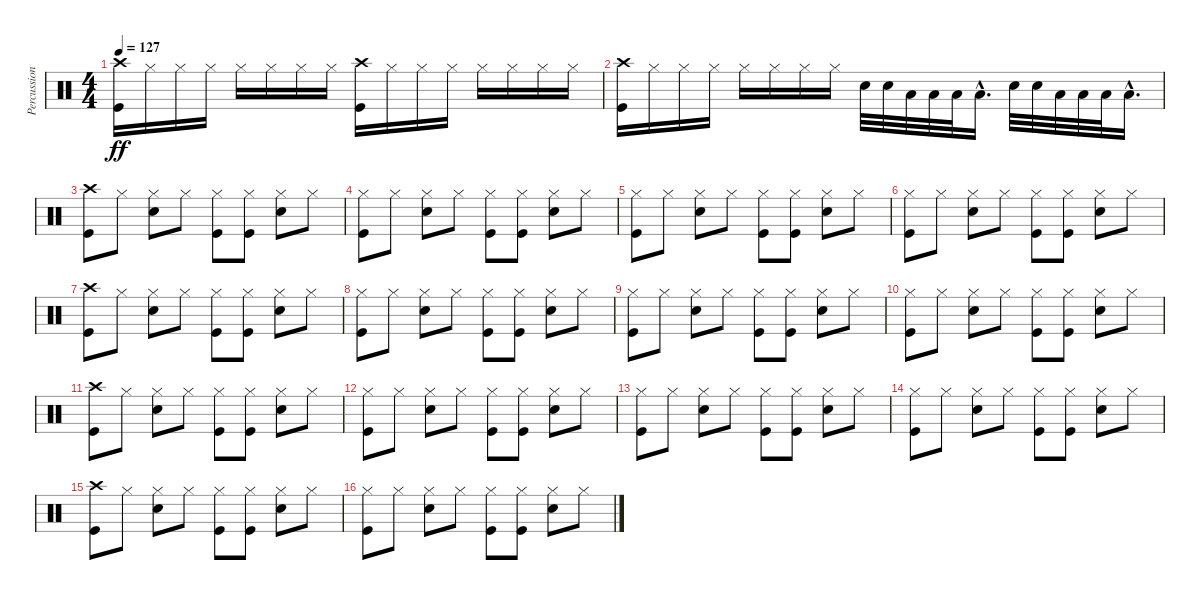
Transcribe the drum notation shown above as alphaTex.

\track ("Percussion" "Percussion") {instrument percussion}
\staff {score}
\articulation defaults
\ts (4 4)
\tempo 127
\clef neutral
\ks c
("Crash high (hit)" "Kick (hit)").16{dy ff} "Hi-Hat (closed)".16 "Hi-Hat (closed)".16 "Hi-Hat (closed)".16 "Hi-Hat (closed)".16 "Hi-Hat (closed)".16 "Hi-Hat (closed)".16 "Hi-Hat (closed)".16 ("Crash high (hit)" "Kick (hit)").16 "Hi-Hat (closed)".16 "Hi-Hat (closed)".16 "Hi-Hat (closed)".16 "Hi-Hat (closed)".16 "Hi-Hat (closed)".16 "Hi-Hat (closed)".16 "Hi-Hat (closed)".16 |
("Crash high (hit)" "Kick (hit)").16 "Hi-Hat (closed)".16 "Hi-Hat (closed)".16 "Hi-Hat (closed)".16 "Hi-Hat (closed)".16 "Hi-Hat (closed)".16 "Hi-Hat (closed)".16 "Hi-Hat (closed)".16 "Snare (hit) 2".32 "Snare (hit) 2".32 "Low Tom (hit)".32 "Low Tom (hit)".32 "Low Floor Tom (hit)".32 "Low Floor Tom (hit)"{hac}.16{d} "Snare (hit) 2".32 "Snare (hit) 2".32 "Low Tom (hit)".32 "Low Tom (hit)".32 "Low Floor Tom (hit)".32 "Low Floor Tom (hit)"{hac}.16{d} |
("Crash high (hit)" "Kick (hit)").8 "Hi-Hat (closed)".8 ("Hi-Hat (closed)" "Snare (hit) 2").8 "Hi-Hat (closed)".8 ("Hi-Hat (closed)" "Kick (hit)").8 ("Hi-Hat (closed)" "Kick (hit)").8 ("Hi-Hat (closed)" "Snare (hit) 2").8 "Hi-Hat (closed)".8 |
("Hi-Hat (closed)" "Kick (hit)").8 "Hi-Hat (closed)".8 ("Hi-Hat (closed)" "Snare (hit) 2").8 "Hi-Hat (closed)".8 ("Hi-Hat (closed)" "Kick (hit)").8 ("Hi-Hat (closed)" "Kick (hit)").8 ("Hi-Hat (closed)" "Snare (hit) 2").8 "Hi-Hat (closed)".8 |
("Hi-Hat (closed)" "Kick (hit)").8 "Hi-Hat (closed)".8 ("Hi-Hat (closed)" "Snare (hit) 2").8 "Hi-Hat (closed)".8 ("Hi-Hat (closed)" "Kick (hit)").8 ("Hi-Hat (closed)" "Kick (hit)").8 ("Hi-Hat (closed)" "Snare (hit) 2").8 "Hi-Hat (closed)".8 |
("Hi-Hat (closed)" "Kick (hit)").8 "Hi-Hat (closed)".8 ("Hi-Hat (closed)" "Snare (hit) 2").8 "Hi-Hat (closed)".8 ("Hi-Hat (closed)" "Kick (hit)").8 ("Hi-Hat (closed)" "Kick (hit)").8 ("Hi-Hat (closed)" "Snare (hit) 2").8 "Hi-Hat (closed)".8 |
("Crash high (hit)" "Kick (hit)").8 "Hi-Hat (closed)".8 ("Hi-Hat (closed)" "Snare (hit) 2").8 "Hi-Hat (closed)".8 ("Hi-Hat (closed)" "Kick (hit)").8 ("Hi-Hat (closed)" "Kick (hit)").8 ("Hi-Hat (closed)" "Snare (hit) 2").8 "Hi-Hat (closed)".8 |
("Hi-Hat (closed)" "Kick (hit)").8 "Hi-Hat (closed)".8 ("Hi-Hat (closed)" "Snare (hit) 2").8 "Hi-Hat (closed)".8 ("Hi-Hat (closed)" "Kick (hit)").8 ("Hi-Hat (closed)" "Kick (hit)").8 ("Hi-Hat (closed)" "Snare (hit) 2").8 "Hi-Hat (closed)".8 |
("Hi-Hat (closed)" "Kick (hit)").8 "Hi-Hat (closed)".8 ("Hi-Hat (closed)" "Snare (hit) 2").8 "Hi-Hat (closed)".8 ("Hi-Hat (closed)" "Kick (hit)").8 ("Hi-Hat (closed)" "Kick (hit)").8 ("Hi-Hat (closed)" "Snare (hit) 2").8 "Hi-Hat (closed)".8 |
("Hi-Hat (closed)" "Kick (hit)").8 "Hi-Hat (closed)".8 ("Hi-Hat (closed)" "Snare (hit) 2").8 "Hi-Hat (closed)".8 ("Hi-Hat (closed)" "Kick (hit)").8 ("Hi-Hat (closed)" "Kick (hit)").8 ("Hi-Hat (closed)" "Snare (hit) 2").8 "Hi-Hat (closed)".8 |
("Crash high (hit)" "Kick (hit)").8 "Hi-Hat (closed)".8 ("Hi-Hat (closed)" "Snare (hit) 2").8 "Hi-Hat (closed)".8 ("Hi-Hat (closed)" "Kick (hit)").8 ("Hi-Hat (closed)" "Kick (hit)").8 ("Hi-Hat (closed)" "Snare (hit) 2").8 "Hi-Hat (closed)".8 |
("Hi-Hat (closed)" "Kick (hit)").8 "Hi-Hat (closed)".8 ("Hi-Hat (closed)" "Snare (hit) 2").8 "Hi-Hat (closed)".8 ("Hi-Hat (closed)" "Kick (hit)").8 ("Hi-Hat (closed)" "Kick (hit)").8 ("Hi-Hat (closed)" "Snare (hit) 2").8 "Hi-Hat (closed)".8 |
("Hi-Hat (closed)" "Kick (hit)").8 "Hi-Hat (closed)".8 ("Hi-Hat (closed)" "Snare (hit) 2").8 "Hi-Hat (closed)".8 ("Hi-Hat (closed)" "Kick (hit)").8 ("Hi-Hat (closed)" "Kick (hit)").8 ("Hi-Hat (closed)" "Snare (hit) 2").8 "Hi-Hat (closed)".8 |
("Hi-Hat (closed)" "Kick (hit)").8 "Hi-Hat (closed)".8 ("Hi-Hat (closed)" "Snare (hit) 2").8 "Hi-Hat (closed)".8 ("Hi-Hat (closed)" "Kick (hit)").8 ("Hi-Hat (closed)" "Kick (hit)").8 ("Hi-Hat (closed)" "Snare (hit) 2").8 "Hi-Hat (closed)".8 |
("Crash high (hit)" "Kick (hit)").8 "Hi-Hat (closed)".8 ("Hi-Hat (closed)" "Snare (hit) 2").8 "Hi-Hat (closed)".8 ("Hi-Hat (closed)" "Kick (hit)").8 ("Hi-Hat (closed)" "Kick (hit)").8 ("Hi-Hat (closed)" "Snare (hit) 2").8 "Hi-Hat (closed)".8 |
("Hi-Hat (closed)" "Kick (hit)").8 "Hi-Hat (closed)".8 ("Hi-Hat (closed)" "Snare (hit) 2").8 "Hi-Hat (closed)".8 ("Hi-Hat (closed)" "Kick (hit)").8 ("Hi-Hat (closed)" "Kick (hit)").8 ("Hi-Hat (closed)" "Snare (hit) 2").8 "Hi-Hat (closed)".8
